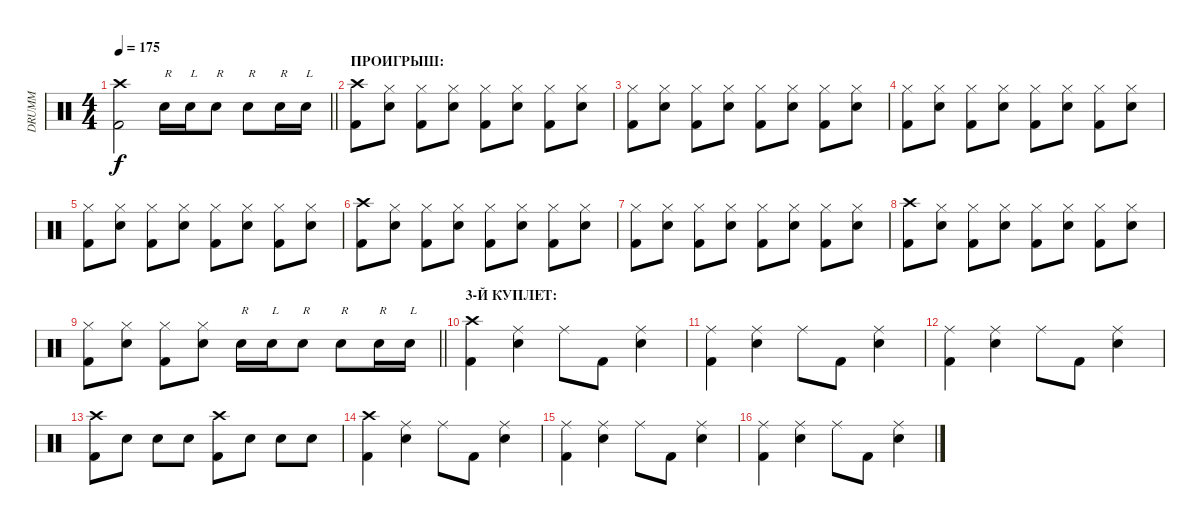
\track ("DRUMM" "DRUMM") {instrument percussion}
\staff {score}
\articulation defaults
\ts (4 4)
\tempo 175
\clef neutral
\barLineRight lightlight
\ks c
("Crash high (hit)" "Kick (hit) 2").2{dy f} "Electric Snare (hit)".16{txt "R"} "Electric Snare (hit)".16{txt "L"} "Electric Snare (hit)".8{txt "R"} "Electric Snare (hit)".8{txt "R"} "Electric Snare (hit)".16{txt "R"} "Electric Snare (hit)".16{txt "L"} |
\section ("" "ПРОИГРЫШ:")
("Crash high (hit)" "Kick (hit) 2").8 ("Hi-Hat (closed)" "Electric Snare (hit)").8 ("Hi-Hat (closed)" "Kick (hit) 2").8 ("Hi-Hat (closed)" "Electric Snare (hit)").8 ("Hi-Hat (closed)" "Kick (hit) 2").8 ("Hi-Hat (closed)" "Electric Snare (hit)").8 ("Hi-Hat (closed)" "Kick (hit) 2").8 ("Hi-Hat (closed)" "Electric Snare (hit)").8 |
("Hi-Hat (closed)" "Kick (hit) 2").8 ("Hi-Hat (closed)" "Electric Snare (hit)").8 ("Hi-Hat (closed)" "Kick (hit) 2").8 ("Hi-Hat (closed)" "Electric Snare (hit)").8 ("Hi-Hat (closed)" "Kick (hit) 2").8 ("Hi-Hat (closed)" "Electric Snare (hit)").8 ("Hi-Hat (closed)" "Kick (hit) 2").8 ("Hi-Hat (closed)" "Electric Snare (hit)").8 |
("Hi-Hat (closed)" "Kick (hit) 2").8 ("Hi-Hat (closed)" "Electric Snare (hit)").8 ("Hi-Hat (closed)" "Kick (hit) 2").8 ("Hi-Hat (closed)" "Electric Snare (hit)").8 ("Hi-Hat (closed)" "Kick (hit) 2").8 ("Hi-Hat (closed)" "Electric Snare (hit)").8 ("Hi-Hat (closed)" "Kick (hit) 2").8 ("Hi-Hat (closed)" "Electric Snare (hit)").8 |
("Hi-Hat (closed)" "Kick (hit) 2").8 ("Hi-Hat (closed)" "Electric Snare (hit)").8 ("Hi-Hat (closed)" "Kick (hit) 2").8 ("Hi-Hat (closed)" "Electric Snare (hit)").8 ("Hi-Hat (closed)" "Kick (hit) 2").8 ("Hi-Hat (closed)" "Electric Snare (hit)").8 ("Hi-Hat (closed)" "Kick (hit) 2").8 ("Hi-Hat (closed)" "Electric Snare (hit)").8 |
("Crash high (hit)" "Kick (hit) 2").8 ("Hi-Hat (closed)" "Electric Snare (hit)").8 ("Hi-Hat (closed)" "Kick (hit) 2").8 ("Hi-Hat (closed)" "Electric Snare (hit)").8 ("Hi-Hat (closed)" "Kick (hit) 2").8 ("Hi-Hat (closed)" "Electric Snare (hit)").8 ("Hi-Hat (closed)" "Kick (hit) 2").8 ("Hi-Hat (closed)" "Electric Snare (hit)").8 |
("Hi-Hat (closed)" "Kick (hit) 2").8 ("Hi-Hat (closed)" "Electric Snare (hit)").8 ("Hi-Hat (closed)" "Kick (hit) 2").8 ("Hi-Hat (closed)" "Electric Snare (hit)").8 ("Hi-Hat (closed)" "Kick (hit) 2").8 ("Hi-Hat (closed)" "Electric Snare (hit)").8 ("Hi-Hat (closed)" "Kick (hit) 2").8 ("Hi-Hat (closed)" "Electric Snare (hit)").8 |
("Crash high (hit)" "Kick (hit) 2").8 ("Hi-Hat (closed)" "Electric Snare (hit)").8 ("Hi-Hat (closed)" "Kick (hit) 2").8 ("Hi-Hat (closed)" "Electric Snare (hit)").8 ("Hi-Hat (closed)" "Kick (hit) 2").8 ("Hi-Hat (closed)" "Electric Snare (hit)").8 ("Hi-Hat (closed)" "Kick (hit) 2").8 ("Hi-Hat (closed)" "Electric Snare (hit)").8 |
\barLineRight lightlight
("Hi-Hat (closed)" "Kick (hit) 2").8 ("Hi-Hat (closed)" "Electric Snare (hit)").8 ("Hi-Hat (closed)" "Kick (hit) 2").8 ("Hi-Hat (closed)" "Electric Snare (hit)").8 "Electric Snare (hit)".16{txt "R"} "Electric Snare (hit)".16{txt "L"} "Electric Snare (hit)".8{txt "R"} "Electric Snare (hit)".8{txt "R"} "Electric Snare (hit)".16{txt "R"} "Electric Snare (hit)".16{txt "L"} |
\section ("" "3-Й КУПЛЕТ:")
("Crash high (hit)" "Kick (hit) 2").4 ("Ride (middle)" "Electric Snare (hit)").4 "Ride (middle)".8 "Kick (hit) 2".8 ("Electric Snare (hit)" "Ride (middle)").4 |
("Ride (middle)" "Kick (hit) 2").4 ("Electric Snare (hit)" "Ride (middle)").4 "Ride (middle)".8 "Kick (hit) 2".8 ("Electric Snare (hit)" "Ride (middle)").4 |
("Ride (middle)" "Kick (hit) 2").4 ("Electric Snare (hit)" "Ride (middle)").4 "Ride (middle)".8 "Kick (hit) 2".8 ("Electric Snare (hit)" "Ride (middle)").4 |
("Crash high (hit)" "Kick (hit) 2").8 "Electric Snare (hit)".8 "Electric Snare (hit)".8 "Electric Snare (hit)".8 ("Crash high (hit)" "Kick (hit) 2").8 "Electric Snare (hit)".8 "Electric Snare (hit)".8 "Electric Snare (hit)".8 |
("Crash high (hit)" "Kick (hit) 2").4 ("Ride (middle)" "Electric Snare (hit)").4 "Ride (middle)".8 "Kick (hit) 2".8 ("Electric Snare (hit)" "Ride (middle)").4 |
("Ride (middle)" "Kick (hit) 2").4 ("Electric Snare (hit)" "Ride (middle)").4 "Ride (middle)".8 "Kick (hit) 2".8 ("Electric Snare (hit)" "Ride (middle)").4 |
("Ride (middle)" "Kick (hit) 2").4 ("Electric Snare (hit)" "Ride (middle)").4 "Ride (middle)".8 "Kick (hit) 2".8 ("Electric Snare (hit)" "Ride (middle)").4
